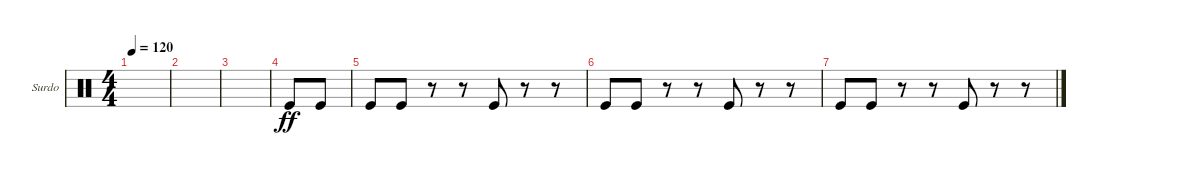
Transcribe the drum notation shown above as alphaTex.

\defaultSystemsLayout 4
\bracketExtendMode groupsimilarinstruments
\firstSystemTrackNameOrientation horizontal
\otherSystemsTrackNameOrientation horizontal
\track ("Surdo" "Surdo") {instrument percussion}
\staff {score}
\articulation defaults
\ts (4 4)
\tempo 120
\clef neutral
\ks c
|
|
|
"Kick (hit)".8{dy ff} "Kick (hit)".8 |
"Kick (hit)".8 "Kick (hit)".8 r.8 r.8 "Kick (hit)".8 r.8 r.8 |
"Kick (hit)".8 "Kick (hit)".8 r.8 r.8 "Kick (hit)".8 r.8 r.8 |
"Kick (hit)".8 "Kick (hit)".8 r.8 r.8 "Kick (hit)".8 r.8 r.8
